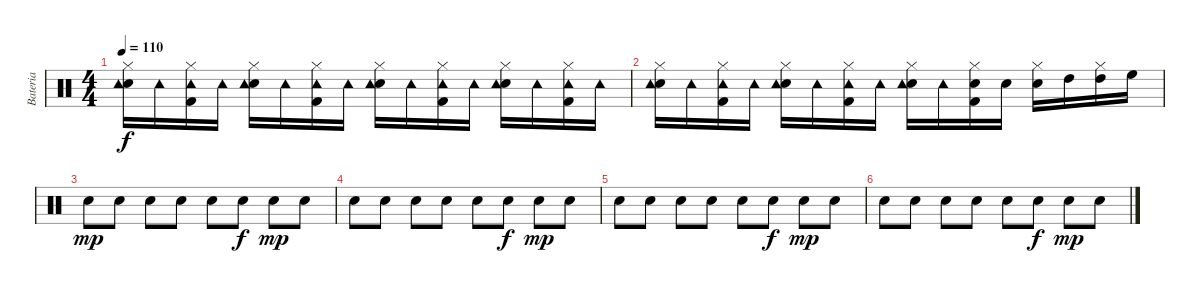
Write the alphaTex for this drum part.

\track ("Bateria" "Bateria") {instrument percussion}
\staff {score}
\articulation defaults
\ts (4 4)
\tempo 110
\clef neutral
\ks c
("Hi-Hat (closed)" "Snare (hit) 2" "Tambourine (hit)").16{dy f} "Tambourine (hit)".16 ("Hi-Hat (closed)" "Kick (hit) 2" "Tambourine (hit)").16 "Tambourine (hit)".16 ("Hi-Hat (closed)" "Snare (hit) 2" "Tambourine (hit)").16 "Tambourine (hit)".16 ("Hi-Hat (closed)" "Kick (hit) 2" "Tambourine (hit)").16 "Tambourine (hit)".16 ("Hi-Hat (closed)" "Snare (hit) 2" "Tambourine (hit)").16 "Tambourine (hit)".16 ("Hi-Hat (closed)" "Kick (hit) 2" "Tambourine (hit)").16 "Tambourine (hit)".16 ("Hi-Hat (closed)" "Snare (hit) 2" "Tambourine (hit)").16 "Tambourine (hit)".16 ("Hi-Hat (closed)" "Kick (hit) 2" "Tambourine (hit)").16 "Tambourine (hit)".16 |
("Hi-Hat (closed)" "Snare (hit) 2" "Tambourine (hit)").16 "Tambourine (hit)".16 ("Hi-Hat (closed)" "Kick (hit) 2" "Tambourine (hit)").16 "Tambourine (hit)".16 ("Hi-Hat (closed)" "Snare (hit) 2" "Tambourine (hit)").16 "Tambourine (hit)".16 ("Hi-Hat (closed)" "Kick (hit) 2" "Tambourine (hit)").16 "Tambourine (hit)".16 ("Hi-Hat (closed)" "Snare (hit) 2" "Tambourine (hit)").16 "Tambourine (hit)".16 ("Hi-Hat (closed)" "Kick (hit) 2" "Snare (hit) 2").16 "Snare (hit) 2".16 ("Hi-Hat (closed)" "Snare (hit) 2").16 "High Tom (hit)".16 ("Hi-Hat (closed)" "High Tom (hit)").16 "High Floor Tom (hit)".16 |
"Snare (hit) 2".8{dy mp} "Snare (hit) 2".8 "Snare (hit) 2".8 "Snare (hit) 2".8 "Snare (hit) 2".8 "Snare (hit) 2".8{dy f} "Snare (hit) 2".8{dy mp} "Snare (hit) 2".8 |
"Snare (hit) 2".8 "Snare (hit) 2".8 "Snare (hit) 2".8 "Snare (hit) 2".8 "Snare (hit) 2".8 "Snare (hit) 2".8{dy f} "Snare (hit) 2".8{dy mp} "Snare (hit) 2".8 |
"Snare (hit) 2".8 "Snare (hit) 2".8 "Snare (hit) 2".8 "Snare (hit) 2".8 "Snare (hit) 2".8 "Snare (hit) 2".8{dy f} "Snare (hit) 2".8{dy mp} "Snare (hit) 2".8 |
"Snare (hit) 2".8 "Snare (hit) 2".8 "Snare (hit) 2".8 "Snare (hit) 2".8 "Snare (hit) 2".8 "Snare (hit) 2".8{dy f} "Snare (hit) 2".8{dy mp} "Snare (hit) 2".8
